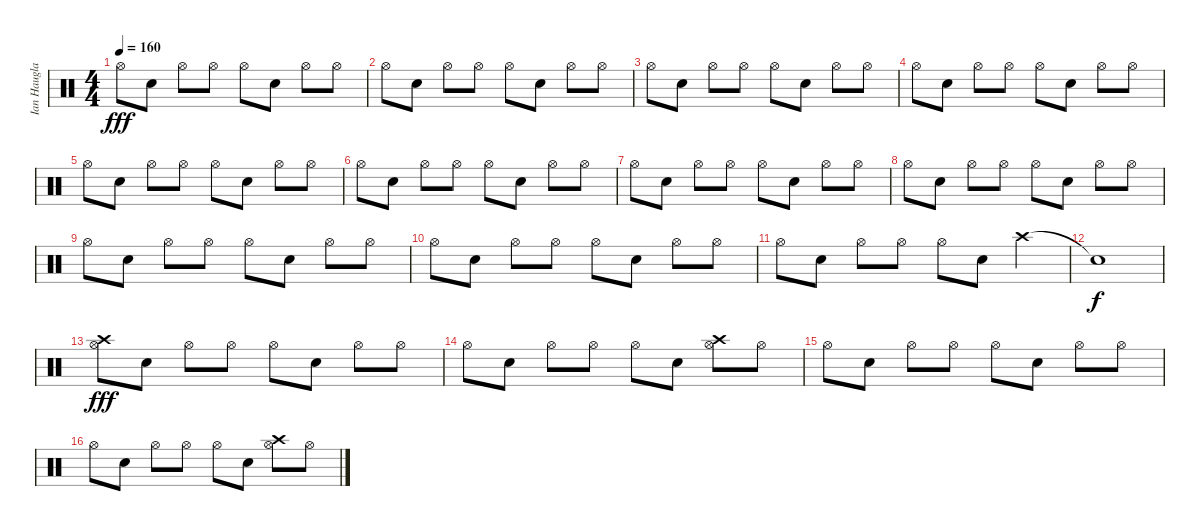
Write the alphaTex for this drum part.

\track ("Ian Haugland" "Ian Haugla") {instrument percussion}
\staff {score}
\articulation defaults
\ts (4 4)
\tempo 160
\clef neutral
\ks c "Hi-Hat (open)".8{dy fff} "Electric Snare (hit)".8 "Hi-Hat (open)".8 "Hi-Hat (open)".8 "Hi-Hat (open)".8 "Snare (hit) 2".8 "Hi-Hat (open)".8 "Hi-Hat (open)".8
|
"Hi-Hat (open)".8 "Electric Snare (hit)".8 "Hi-Hat (open)".8 "Hi-Hat (open)".8 "Hi-Hat (open)".8 "Electric Snare (hit)".8 "Hi-Hat (open)".8 "Hi-Hat (open)".8 |
"Hi-Hat (open)".8 "Electric Snare (hit)".8 "Hi-Hat (open)".8 "Hi-Hat (open)".8 "Hi-Hat (open)".8 "Snare (hit) 2".8 "Hi-Hat (open)".8 "Hi-Hat (open)".8 |
"Hi-Hat (open)".8 "Electric Snare (hit)".8 "Hi-Hat (open)".8 "Hi-Hat (open)".8 "Hi-Hat (open)".8 "Electric Snare (hit)".8 "Hi-Hat (open)".8 "Hi-Hat (open)".8 |
"Hi-Hat (open)".8 "Electric Snare (hit)".8 "Hi-Hat (open)".8 "Hi-Hat (open)".8 "Hi-Hat (open)".8 "Snare (hit) 2".8 "Hi-Hat (open)".8 "Hi-Hat (open)".8 |
"Hi-Hat (open)".8 "Electric Snare (hit)".8 "Hi-Hat (open)".8 "Hi-Hat (open)".8 "Hi-Hat (open)".8 "Electric Snare (hit)".8 "Hi-Hat (open)".8 "Hi-Hat (open)".8 |
"Hi-Hat (open)".8 "Electric Snare (hit)".8 "Hi-Hat (open)".8 "Hi-Hat (open)".8 "Hi-Hat (open)".8 "Snare (hit) 2".8 "Hi-Hat (open)".8 "Hi-Hat (open)".8 |
"Hi-Hat (open)".8 "Electric Snare (hit)".8 "Hi-Hat (open)".8 "Hi-Hat (open)".8 "Hi-Hat (open)".8 "Electric Snare (hit)".8 "Hi-Hat (open)".8 "Hi-Hat (open)".8 |
"Hi-Hat (open)".8 "Electric Snare (hit)".8 "Hi-Hat (open)".8 "Hi-Hat (open)".8 "Hi-Hat (open)".8 "Snare (hit) 2".8 "Hi-Hat (open)".8 "Hi-Hat (open)".8 |
"Hi-Hat (open)".8 "Electric Snare (hit)".8 "Hi-Hat (open)".8 "Hi-Hat (open)".8 "Hi-Hat (open)".8 "Electric Snare (hit)".8 "Hi-Hat (open)".8 "Hi-Hat (open)".8 |
"Hi-Hat (open)".8 "Electric Snare (hit)".8 "Hi-Hat (open)".8 "Hi-Hat (open)".8 "Hi-Hat (open)".8 "Electric Snare (hit)".8 "Crash high (hit)".4 |
"Snare (hit)"{t}.1{dy f} |
("Hi-Hat (open)" "Crash high (hit)").8{dy fff} "Electric Snare (hit)".8 "Hi-Hat (open)".8 "Hi-Hat (open)".8 "Hi-Hat (open)".8 "Snare (hit) 2".8 "Hi-Hat (open)".8 "Hi-Hat (open)".8 |
"Hi-Hat (open)".8 "Electric Snare (hit)".8 "Hi-Hat (open)".8 "Hi-Hat (open)".8 "Hi-Hat (open)".8 "Electric Snare (hit)".8 ("Hi-Hat (open)" "Crash high (hit)").8 "Hi-Hat (open)".8 |
"Hi-Hat (open)".8 "Electric Snare (hit)".8 "Hi-Hat (open)".8 "Hi-Hat (open)".8 "Hi-Hat (open)".8 "Snare (hit) 2".8 "Hi-Hat (open)".8 "Hi-Hat (open)".8 |
"Hi-Hat (open)".8 "Electric Snare (hit)".8 "Hi-Hat (open)".8 "Hi-Hat (open)".8 "Hi-Hat (open)".8 "Electric Snare (hit)".8 ("Hi-Hat (open)" "Crash high (hit)").8 "Hi-Hat (open)".8
